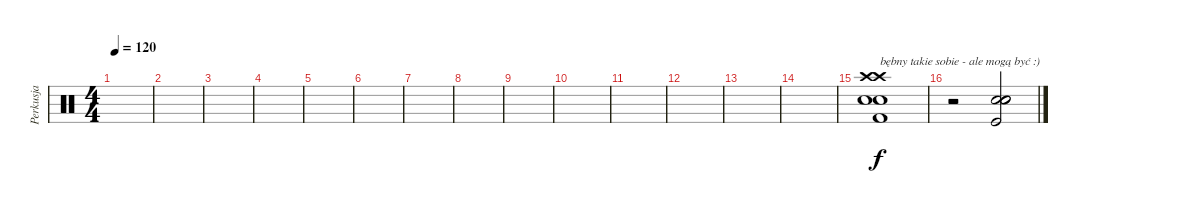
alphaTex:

\track ("Perkusja" "Perkusja") {instrument percussion}
\staff {score}
\articulation defaults
\ts (4 4)
\tempo 120
\clef neutral
\ks c
|
|
|
|
|
|
|
|
|
|
|
|
|
|
("Crash high (hit)" "Crash high (hit)" "Snare (hit) 2" "Electric Snare (hit)" "Kick (hit) 2").1{txt "bębny takie sobie - ale mogą być :)"} |
r.2 ("Snare (hit) 2" "Kick (hit)" "Electric Snare (hit)" "Electric Snare (hit)").2
